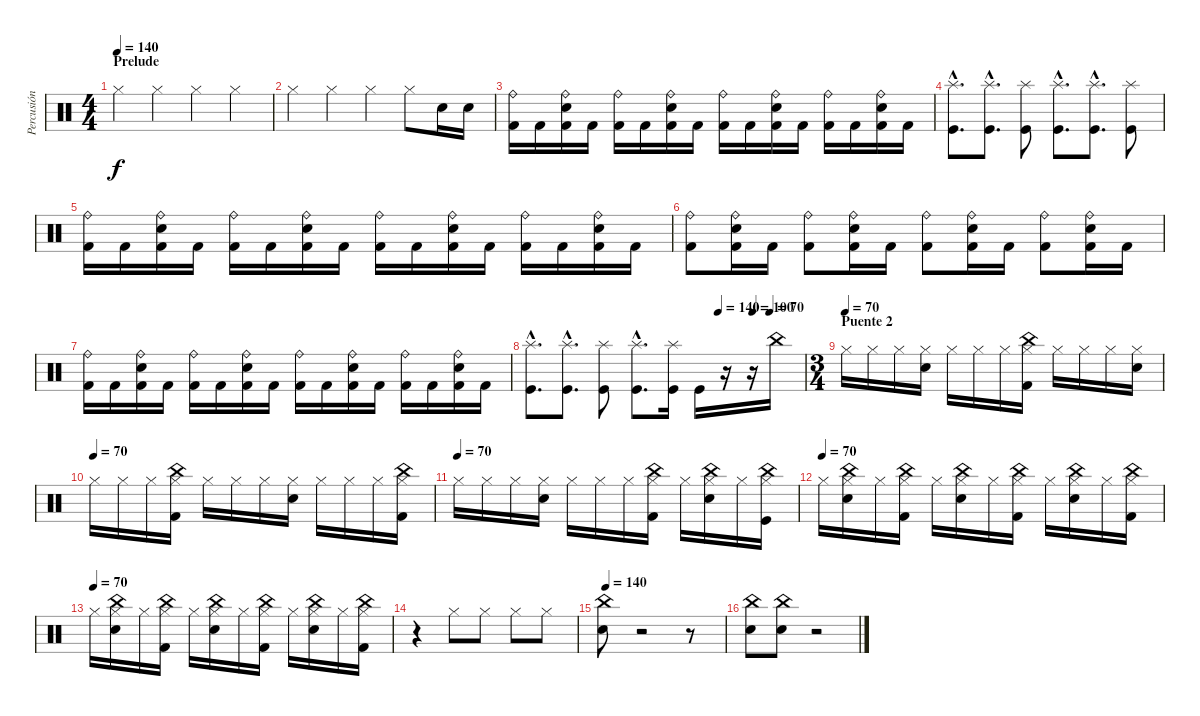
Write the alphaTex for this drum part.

\track ("Percusión" "Percusión") {instrument percussion}
\staff {score}
\articulation defaults
\ts (4 4)
\section ("" "Prelude")
\tempo 140
\clef neutral
\ks c "Hi-Hat (closed)".4{dy f} "Hi-Hat (closed)".4 "Hi-Hat (closed)".4 "Hi-Hat (closed)".4
|
"Hi-Hat (closed)".4 "Hi-Hat (closed)".4 "Hi-Hat (closed)".4 "Hi-Hat (closed)".8 "Electric Snare (hit)".16 "Electric Snare (hit)".16 |
("Ride (bell)" "Kick (hit) 2").16 "Kick (hit) 2".16 ("Ride (bell)" "Electric Snare (hit)" "Kick (hit) 2").16 "Kick (hit) 2".16 ("Ride (bell)" "Kick (hit) 2").16 "Kick (hit) 2".16 ("Ride (bell)" "Electric Snare (hit)" "Kick (hit) 2").16 "Kick (hit) 2".16 ("Ride (bell)" "Kick (hit) 2").16 "Kick (hit) 2".16 ("Ride (bell)" "Electric Snare (hit)" "Kick (hit) 2").16 "Kick (hit) 2".16 ("Ride (bell)" "Kick (hit) 2").16 "Kick (hit) 2".16 ("Ride (bell)" "Electric Snare (hit)" "Kick (hit) 2").16 "Kick (hit) 2".16 |
("Kick (hit)"{hac} "Splash (hit)"{hac}).8{d} ("Kick (hit)"{hac} "Splash (hit)"{hac}).8{d} ("Kick (hit)" "Splash (hit)").8 ("Kick (hit)"{hac} "Splash (hit)"{hac}).8{d} ("Kick (hit)"{hac} "Splash (hit)"{hac}).8{d} ("Kick (hit)" "Splash (hit)").8 |
("Ride (bell)" "Kick (hit) 2").16 "Kick (hit) 2".16 ("Ride (bell)" "Electric Snare (hit)" "Kick (hit) 2").16 "Kick (hit) 2".16 ("Ride (bell)" "Kick (hit) 2").16 "Kick (hit) 2".16 ("Ride (bell)" "Electric Snare (hit)" "Kick (hit) 2").16 "Kick (hit) 2".16 ("Ride (bell)" "Kick (hit) 2").16 "Kick (hit) 2".16 ("Ride (bell)" "Electric Snare (hit)" "Kick (hit) 2").16 "Kick (hit) 2".16 ("Ride (bell)" "Kick (hit) 2").16 "Kick (hit) 2".16 ("Ride (bell)" "Electric Snare (hit)" "Kick (hit) 2").16 "Kick (hit) 2".16 |
("Ride (bell)" "Kick (hit) 2").8 ("Ride (bell)" "Electric Snare (hit)" "Kick (hit) 2").16 "Kick (hit) 2".16 ("Ride (bell)" "Kick (hit) 2").8 ("Ride (bell)" "Electric Snare (hit)" "Kick (hit) 2").16 "Kick (hit) 2".16 ("Ride (bell)" "Kick (hit) 2").8 ("Ride (bell)" "Electric Snare (hit)" "Kick (hit) 2").16 "Kick (hit) 2".16 ("Ride (bell)" "Kick (hit) 2").8 ("Ride (bell)" "Electric Snare (hit)" "Kick (hit) 2").16 "Kick (hit) 2".16 |
("Ride (bell)" "Kick (hit) 2").16 "Kick (hit) 2".16 ("Ride (bell)" "Electric Snare (hit)" "Kick (hit) 2").16 "Kick (hit) 2".16 ("Ride (bell)" "Kick (hit) 2").16 "Kick (hit) 2".16 ("Ride (bell)" "Electric Snare (hit)" "Kick (hit) 2").16 "Kick (hit) 2".16 ("Ride (bell)" "Kick (hit) 2").16 "Kick (hit) 2".16 ("Ride (bell)" "Electric Snare (hit)" "Kick (hit) 2").16 "Kick (hit) 2".16 ("Ride (bell)" "Kick (hit) 2").16 "Kick (hit) 2".16 ("Ride (bell)" "Electric Snare (hit)" "Kick (hit) 2").16 "Kick (hit) 2".16 |
\tempo (140 0.6875)
\tempo (70 0.875)
\tempo (100 0.8125)
("Kick (hit)"{hac} "Splash (hit)"{hac}).8{d} ("Kick (hit)"{hac} "Splash (hit)"{hac}).8{d} ("Kick (hit)" "Splash (hit)").8 ("Kick (hit)"{hac} "Splash (hit)"{hac}).8{d} ("Kick (hit)" "Splash (hit)").16 "Kick (hit)".16 r.16 r.16 "China (hit)".16 |
\ts (3 4)
\section ("" "Puente 2")
\tempo (70)
"Hi-Hat (closed)".16 "Hi-Hat (closed)".16 "Hi-Hat (closed)".16 ("Hi-Hat (closed)" "Electric Snare (hit)").16 "Hi-Hat (closed)".16 "Hi-Hat (closed)".16 "Hi-Hat (closed)".16 ("Hi-Hat (closed)" "China (hit)" "Kick (hit) 2").16 "Hi-Hat (closed)".16 "Hi-Hat (closed)".16 "Hi-Hat (closed)".16 ("Hi-Hat (closed)" "Electric Snare (hit)").16 |
\tempo (70)
"Hi-Hat (closed)".16 "Hi-Hat (closed)".16 "Hi-Hat (closed)".16 ("Hi-Hat (closed)" "China (hit)" "Kick (hit) 2").16 "Hi-Hat (closed)".16 "Hi-Hat (closed)".16 "Hi-Hat (closed)".16 ("Hi-Hat (closed)" "Electric Snare (hit)").16 "Hi-Hat (closed)".16 "Hi-Hat (closed)".16 "Hi-Hat (closed)".16 ("Hi-Hat (closed)" "China (hit)" "Kick (hit) 2").16 |
\tempo (70)
"Hi-Hat (closed)".16 "Hi-Hat (closed)".16 "Hi-Hat (closed)".16 ("Hi-Hat (closed)" "Electric Snare (hit)").16 "Hi-Hat (closed)".16 "Hi-Hat (closed)".16 "Hi-Hat (closed)".16 ("Hi-Hat (closed)" "China (hit)" "Kick (hit) 2").16 "Hi-Hat (closed)".16 ("Hi-Hat (closed)" "China (hit)" "Electric Snare (hit)").16 "Hi-Hat (closed)".16 ("Hi-Hat (closed)" "China (hit)" "Kick (hit)").16 |
\tempo (70)
"Hi-Hat (closed)".16 ("Hi-Hat (closed)" "China (hit)" "Electric Snare (hit)").16 "Hi-Hat (closed)".16 ("Hi-Hat (closed)" "China (hit)" "Kick (hit) 2").16 "Hi-Hat (closed)".16 ("Hi-Hat (closed)" "China (hit)" "Electric Snare (hit)").16 "Hi-Hat (closed)".16 ("Hi-Hat (closed)" "China (hit)" "Kick (hit) 2").16 "Hi-Hat (closed)".16 ("Hi-Hat (closed)" "Electric Snare (hit)" "China (hit)").16 "Hi-Hat (closed)".16 ("Hi-Hat (closed)" "China (hit)" "Kick (hit) 2").16 |
\tempo (70)
"Hi-Hat (closed)".16 ("Hi-Hat (closed)" "China (hit)" "Electric Snare (hit)").16 "Hi-Hat (closed)".16 ("Hi-Hat (closed)" "China (hit)" "Kick (hit) 2").16 "Hi-Hat (closed)".16 ("Hi-Hat (closed)" "China (hit)" "Electric Snare (hit)").16 "Hi-Hat (closed)".16 ("Hi-Hat (closed)" "China (hit)" "Kick (hit) 2").16 "Hi-Hat (closed)".16 ("Hi-Hat (closed)" "Electric Snare (hit)" "China (hit)").16 "Hi-Hat (closed)".16 ("Hi-Hat (closed)" "China (hit)" "Kick (hit) 2").16 |
r.4 "Hi-Hat (closed)".8 "Hi-Hat (closed)".8 "Hi-Hat (closed)".8 "Hi-Hat (closed)".8 |
\tempo 140
("Electric Snare (hit)" "China (hit)").8 r.2 r.8 |
("Electric Snare (hit)" "China (hit)").8 ("Electric Snare (hit)" "China (hit)").8 r.2
